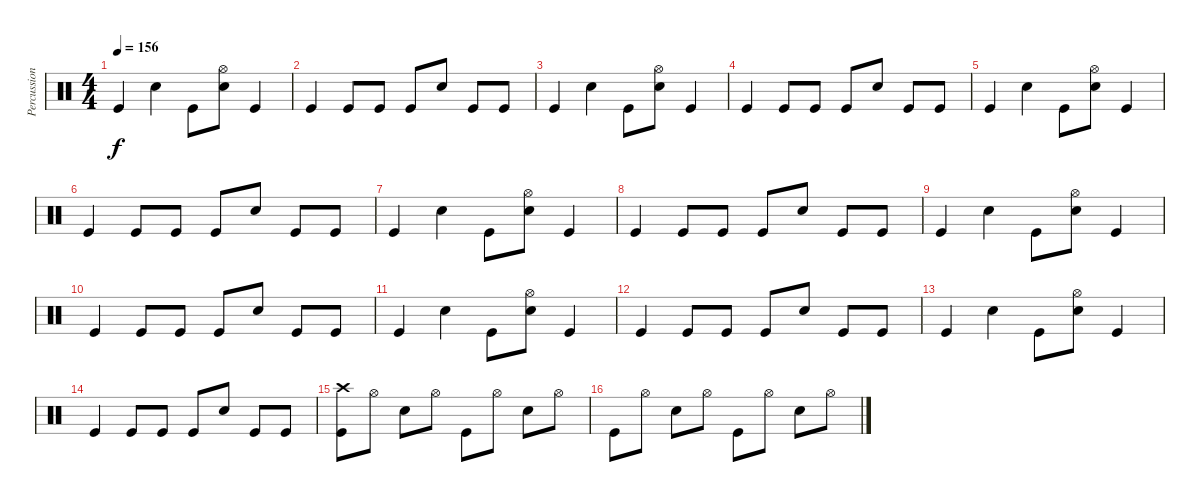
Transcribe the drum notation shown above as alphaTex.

\track ("Percussion" "Percussion") {instrument percussion}
\staff {score}
\articulation defaults
\ts (4 4)
\tempo 156
\clef neutral
\ks c "Kick (hit)".4{dy f} "Electric Snare (hit)".4 "Kick (hit)".8
("Hi-Hat (open)" "Electric Snare (hit)").8 "Kick (hit)".4 |
"Kick (hit)".4 "Kick (hit)".8 "Kick (hit)".8 "Kick (hit)".8 "Electric Snare (hit)".8 "Kick (hit)".8 "Kick (hit)".8 |
"Kick (hit)".4 "Electric Snare (hit)".4 "Kick (hit)".8 ("Hi-Hat (open)" "Electric Snare (hit)").8 "Kick (hit)".4 |
"Kick (hit)".4 "Kick (hit)".8 "Kick (hit)".8 "Kick (hit)".8 "Electric Snare (hit)".8 "Kick (hit)".8 "Kick (hit)".8 |
"Kick (hit)".4 "Electric Snare (hit)".4 "Kick (hit)".8 ("Hi-Hat (open)" "Electric Snare (hit)").8 "Kick (hit)".4 |
"Kick (hit)".4 "Kick (hit)".8 "Kick (hit)".8 "Kick (hit)".8 "Electric Snare (hit)".8 "Kick (hit)".8 "Kick (hit)".8 |
"Kick (hit)".4 "Electric Snare (hit)".4 "Kick (hit)".8 ("Hi-Hat (open)" "Electric Snare (hit)").8 "Kick (hit)".4 |
"Kick (hit)".4 "Kick (hit)".8 "Kick (hit)".8 "Kick (hit)".8 "Electric Snare (hit)".8 "Kick (hit)".8 "Kick (hit)".8 |
"Kick (hit)".4 "Electric Snare (hit)".4 "Kick (hit)".8 ("Hi-Hat (open)" "Electric Snare (hit)").8 "Kick (hit)".4 |
"Kick (hit)".4 "Kick (hit)".8 "Kick (hit)".8 "Kick (hit)".8 "Electric Snare (hit)".8 "Kick (hit)".8 "Kick (hit)".8 |
"Kick (hit)".4 "Electric Snare (hit)".4 "Kick (hit)".8 ("Hi-Hat (open)" "Electric Snare (hit)").8 "Kick (hit)".4 |
"Kick (hit)".4 "Kick (hit)".8 "Kick (hit)".8 "Kick (hit)".8 "Electric Snare (hit)".8 "Kick (hit)".8 "Kick (hit)".8 |
"Kick (hit)".4 "Electric Snare (hit)".4 "Kick (hit)".8 ("Hi-Hat (open)" "Electric Snare (hit)").8 "Kick (hit)".4 |
"Kick (hit)".4 "Kick (hit)".8 "Kick (hit)".8 "Kick (hit)".8 "Electric Snare (hit)".8 "Kick (hit)".8 "Kick (hit)".8 |
("Crash high (hit)" "Kick (hit)").8 "Hi-Hat (open)".8 "Electric Snare (hit)".8 "Hi-Hat (open)".8 "Kick (hit)".8 "Hi-Hat (open)".8 "Electric Snare (hit)".8 "Hi-Hat (open)".8 |
"Kick (hit)".8 "Hi-Hat (open)".8 "Electric Snare (hit)".8 "Hi-Hat (open)".8 "Kick (hit)".8 "Hi-Hat (open)".8 "Electric Snare (hit)".8 "Hi-Hat (open)".8
